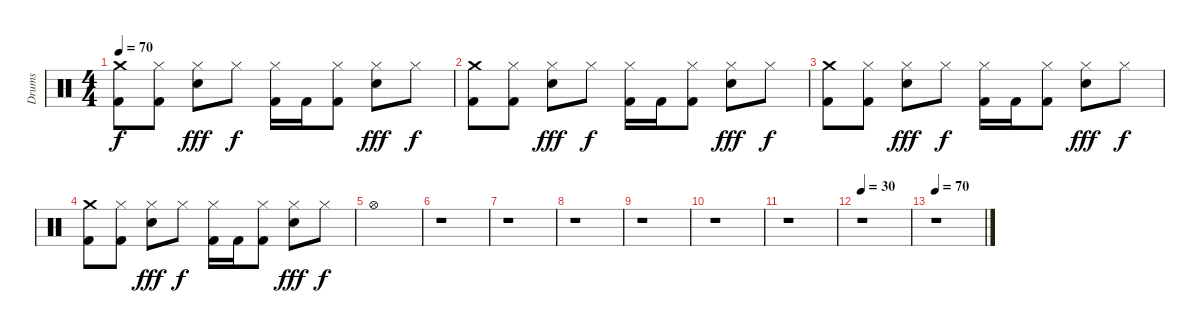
\track ("Drums" "Drums") {instrument percussion}
\staff {score}
\articulation defaults
\ts (4 4)
\tempo 70
\clef neutral
\ks c
("Crash medium (hit)" "Kick (hit) 2").8{dy f} ("Hi-Hat (closed)" "Kick (hit) 2").8 ("Hi-Hat (closed)" "Electric Snare (hit)").8{dy fff} "Hi-Hat (closed)".8{dy f} ("Hi-Hat (closed)" "Kick (hit) 2").16 "Kick (hit) 2".16 ("Hi-Hat (closed)" "Kick (hit) 2").8 ("Hi-Hat (closed)" "Electric Snare (hit)").8{dy fff} "Hi-Hat (closed)".8{dy f} |
("Crash medium (hit)" "Kick (hit) 2").8 ("Hi-Hat (closed)" "Kick (hit) 2").8 ("Hi-Hat (closed)" "Electric Snare (hit)").8{dy fff} "Hi-Hat (closed)".8{dy f} ("Hi-Hat (closed)" "Kick (hit) 2").16 "Kick (hit) 2".16 ("Hi-Hat (closed)" "Kick (hit) 2").8 ("Hi-Hat (closed)" "Electric Snare (hit)").8{dy fff} "Hi-Hat (closed)".8{dy f} |
("Crash medium (hit)" "Kick (hit) 2").8 ("Hi-Hat (closed)" "Kick (hit) 2").8 ("Hi-Hat (closed)" "Electric Snare (hit)").8{dy fff} "Hi-Hat (closed)".8{dy f} ("Hi-Hat (closed)" "Kick (hit) 2").16 "Kick (hit) 2".16 ("Hi-Hat (closed)" "Kick (hit) 2").8 ("Hi-Hat (closed)" "Electric Snare (hit)").8{dy fff} "Hi-Hat (closed)".8{dy f} |
("Crash medium (hit)" "Kick (hit) 2").8 ("Hi-Hat (closed)" "Kick (hit) 2").8 ("Hi-Hat (closed)" "Electric Snare (hit)").8{dy fff} "Hi-Hat (closed)".8{dy f} ("Hi-Hat (closed)" "Kick (hit) 2").16 "Kick (hit) 2".16 ("Hi-Hat (closed)" "Kick (hit) 2").8 ("Hi-Hat (closed)" "Electric Snare (hit)").8{dy fff} "Hi-Hat (closed)".8{dy f} |
"Hi-Hat (open)".1 |
r.1 |
r.1 |
r.1 |
r.1 |
r.1 |
r.1 |
\tempo 30
r.1 |
\tempo 70
r.1
